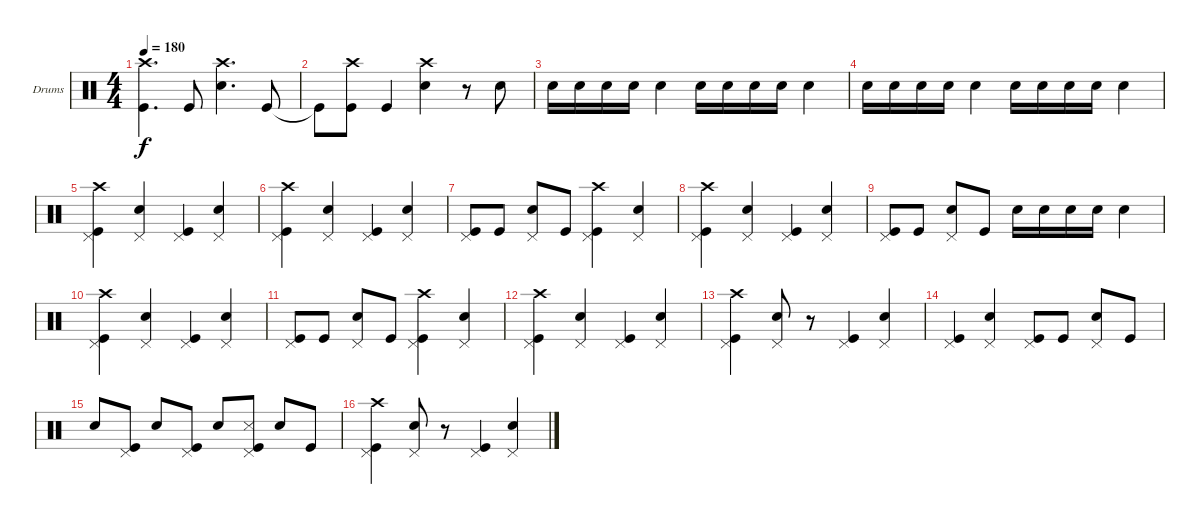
\defaultSystemsLayout 4
\bracketExtendMode groupsimilarinstruments
\firstSystemTrackNameOrientation horizontal
\otherSystemsTrackNameOrientation horizontal
\track ("Drumkit" "Drums") {multiBarRest instrument percussion}
\staff {score}
\articulation defaults
\ts (4 4)
\tempo 180
\clef neutral
\scale
0.333333
\ks c
("Crash high (hit)" "Kick (hit)").4{d dy f} "Kick (hit)".8 ("Crash high (hit)" "Snare (hit) 2").4{d} "Kick (hit)".8 |
\scale
0.333333 "Kick (hit)"{t}.8 ("Crash high (hit)" "Kick (hit)").8 "Kick (hit)".4 ("Crash high (hit)" "Snare (hit) 2").4 r.8 "Snare (hit) 2".8 |
\scale
0.333333 "Snare (hit) 2".16 "Snare (hit) 2".16 "Snare (hit) 2".16 "Snare (hit) 2".16 "Snare (hit) 2".4 "Snare (hit) 2".16 "Snare (hit) 2".16 "Snare (hit) 2".16 "Snare (hit) 2".16 "Snare (hit) 2".4 |
\scale
0.333333 "Snare (hit) 2".16 "Snare (hit) 2".16 "Snare (hit) 2".16 "Snare (hit) 2".16 "Snare (hit) 2".4 "Snare (hit) 2".16 "Snare (hit) 2".16 "Snare (hit) 2".16 "Snare (hit) 2".16 "Snare (hit) 2".4 |
\scale
0.333333 ("Pedal Hi-Hat (hit)" "Crash high (hit)" "Kick (hit)").4 ("Pedal Hi-Hat (hit)" "Snare (hit) 2").4 ("Pedal Hi-Hat (hit)" "Kick (hit)").4 ("Pedal Hi-Hat (hit)" "Snare (hit) 2").4 |
\scale
0.333333 ("Pedal Hi-Hat (hit)" "Crash high (hit)" "Kick (hit)").4 ("Pedal Hi-Hat (hit)" "Snare (hit) 2").4 ("Pedal Hi-Hat (hit)" "Kick (hit)").4 ("Pedal Hi-Hat (hit)" "Snare (hit) 2").4 |
\scale
0.333333 ("Pedal Hi-Hat (hit)" "Kick (hit)").8 "Kick (hit)".8 ("Pedal Hi-Hat (hit)" "Snare (hit) 2").8 "Kick (hit)".8 ("Pedal Hi-Hat (hit)" "Crash high (hit)" "Kick (hit)").4 ("Pedal Hi-Hat (hit)" "Snare (hit) 2").4 |
\scale
0.333333 ("Pedal Hi-Hat (hit)" "Crash high (hit)" "Kick (hit)").4 ("Pedal Hi-Hat (hit)" "Snare (hit) 2").4 ("Pedal Hi-Hat (hit)" "Kick (hit)").4 ("Pedal Hi-Hat (hit)" "Snare (hit) 2").4 |
\scale
0.333333 ("Pedal Hi-Hat (hit)" "Kick (hit)").8 "Kick (hit)".8 ("Pedal Hi-Hat (hit)" "Snare (hit) 2").8 "Kick (hit)".8 "Snare (hit) 2".16 "Snare (hit) 2".16 "Snare (hit) 2".16 "Snare (hit) 2".16 "Snare (hit) 2".4 |
\scale
0.333333 ("Pedal Hi-Hat (hit)" "Crash high (hit)" "Kick (hit)").4 ("Pedal Hi-Hat (hit)" "Snare (hit) 2").4 ("Pedal Hi-Hat (hit)" "Kick (hit)").4 ("Pedal Hi-Hat (hit)" "Snare (hit) 2").4 |
\scale
0.333333 ("Pedal Hi-Hat (hit)" "Kick (hit)").8 "Kick (hit)".8 ("Pedal Hi-Hat (hit)" "Snare (hit) 2").8 "Kick (hit)".8 ("Pedal Hi-Hat (hit)" "Crash high (hit)" "Kick (hit)").4 ("Pedal Hi-Hat (hit)" "Snare (hit) 2").4 |
\scale
0.333333 ("Pedal Hi-Hat (hit)" "Crash high (hit)" "Kick (hit)").4 ("Pedal Hi-Hat (hit)" "Snare (hit) 2").4 ("Pedal Hi-Hat (hit)" "Kick (hit)").4 ("Pedal Hi-Hat (hit)" "Snare (hit) 2").4 |
\scale
0.333333 ("Pedal Hi-Hat (hit)" "Crash high (hit)" "Kick (hit)").4 ("Pedal Hi-Hat (hit)" "Snare (hit) 2").8 r.8 ("Pedal Hi-Hat (hit)" "Kick (hit)").4 ("Pedal Hi-Hat (hit)" "Snare (hit) 2").4 |
\scale
0.333333 ("Pedal Hi-Hat (hit)" "Kick (hit)").4 ("Pedal Hi-Hat (hit)" "Snare (hit) 2").4 ("Pedal Hi-Hat (hit)" "Kick (hit)").8 "Kick (hit)".8 ("Pedal Hi-Hat (hit)" "Snare (hit) 2").8 "Kick (hit)".8 |
\scale
0.333333 "Snare (hit) 2".8 ("Pedal Hi-Hat (hit)" "Kick (hit)").8 "Snare (hit) 2".8 ("Pedal Hi-Hat (hit)" "Kick (hit)").8 "Snare (hit) 2".8 ("Pedal Hi-Hat (hit)" "Snare (side stick) 3" "Kick (hit)").8 "Snare (hit) 2".8 "Kick (hit)".8 |
\scale
0.333333 ("Pedal Hi-Hat (hit)" "Crash high (hit)" "Kick (hit)").4 ("Pedal Hi-Hat (hit)" "Snare (hit) 2").8 r.8 ("Pedal Hi-Hat (hit)" "Kick (hit)").4 ("Pedal Hi-Hat (hit)" "Snare (hit) 2").4
